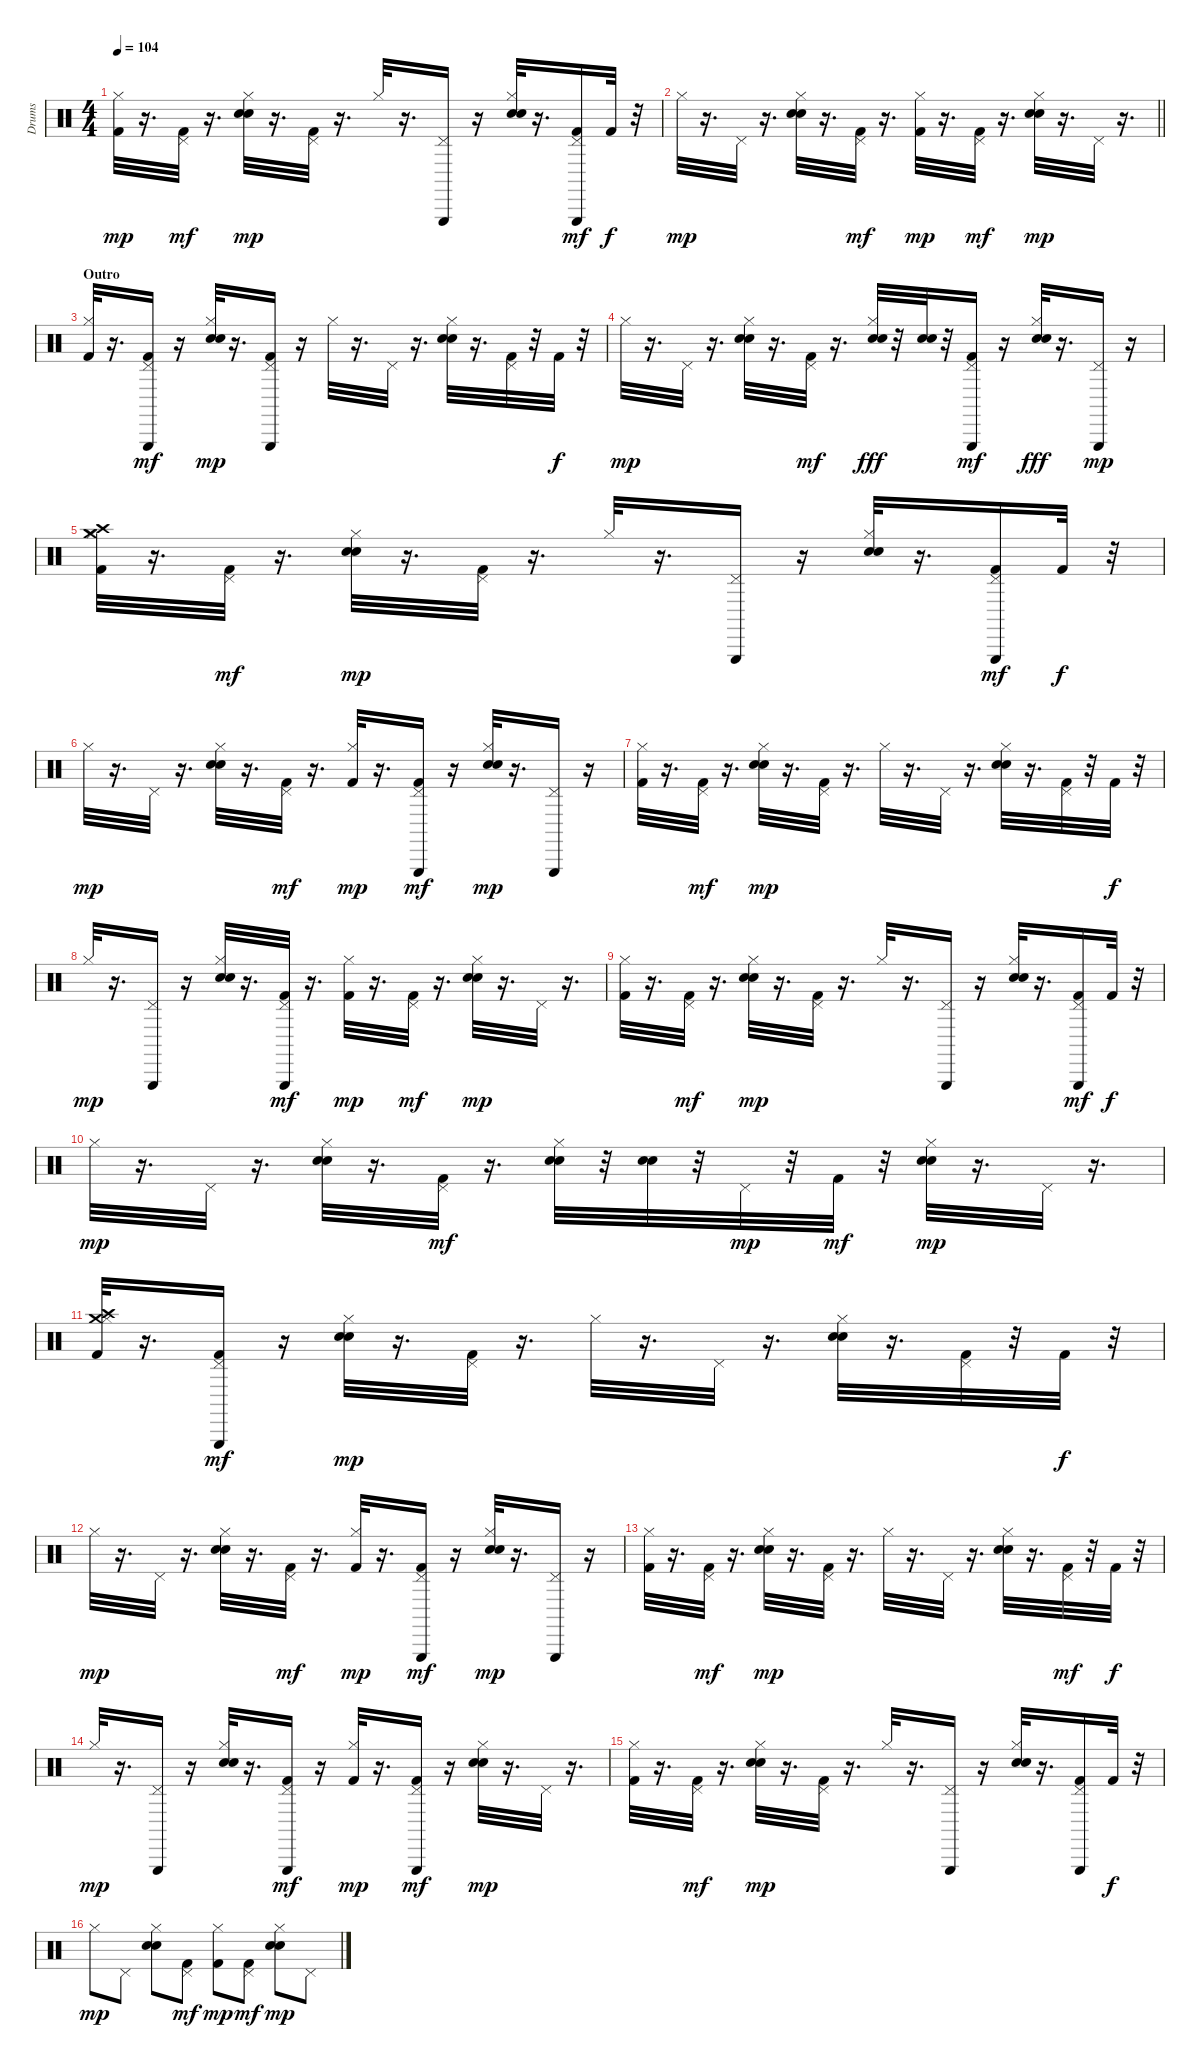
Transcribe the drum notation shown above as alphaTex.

\track ("Drums" "Drums") {instrument percussion}
\staff {score}
\articulation defaults
\ts (4 4)
\tempo 104
\clef neutral
\ks c
("Hi-Hat (closed)" "Kick (hit) 2").32{dy mp} r.16{d} ("Pedal Hi-Hat (hit)" "Kick (hit) 2").32{dy mf} r.16{d} ("Hi-Hat (closed)" "Electric Snare (hit)" "Hand Clap (hit)").32{dy mp} r.16{d} ("Pedal Hi-Hat (hit)" "Kick (hit) 2").32 r.16{d} "Hi-Hat (closed)".32 r.16{d} ("Triangle (hit)" "Pedal Hi-Hat (hit)").16 r.16 ("Hi-Hat (closed)" "Electric Snare (hit)" "Hand Clap (hit)").32 r.16{d} ("Triangle (hit)" "Pedal Hi-Hat (hit)" "Kick (hit) 2").16{dy mf} "Kick (hit) 2".32{dy f} r.32 |
\barLineRight lightlight "Hi-Hat (closed)".32{dy mp}
r.16{d} "Pedal Hi-Hat (hit)".32 r.16{d} ("Hi-Hat (closed)" "Electric Snare (hit)" "Hand Clap (hit)").32 r.16{d} ("Pedal Hi-Hat (hit)" "Kick (hit) 2").32{dy mf} r.16{d} ("Hi-Hat (closed)" "Kick (hit) 2").32{dy mp} r.16{d} ("Pedal Hi-Hat (hit)" "Kick (hit) 2").32{dy mf} r.16{d} ("Hi-Hat (closed)" "Electric Snare (hit)" "Hand Clap (hit)").32{dy mp} r.16{d} "Pedal Hi-Hat (hit)".32 r.16{d} |
\section ("" "Outro")
("Hi-Hat (closed)" "Kick (hit) 2").32 r.16{d} ("Triangle (hit)" "Pedal Hi-Hat (hit)" "Kick (hit) 2").16{dy mf} r.16 ("Hi-Hat (closed)" "Electric Snare (hit)" "Hand Clap (hit)").32{dy mp} r.16{d} ("Triangle (hit)" "Pedal Hi-Hat (hit)" "Kick (hit) 2").16 r.16 "Hi-Hat (closed)".32 r.16{d} "Pedal Hi-Hat (hit)".32 r.16{d} ("Hi-Hat (closed)" "Electric Snare (hit)" "Hand Clap (hit)").32 r.16{d} ("Pedal Hi-Hat (hit)" "Kick (hit) 2").32 r.32 "Kick (hit) 2".32{dy f} r.32 |
"Hi-Hat (closed)".32{dy mp} r.16{d} "Pedal Hi-Hat (hit)".32 r.16{d} ("Hi-Hat (closed)" "Electric Snare (hit)" "Hand Clap (hit)").32 r.16{d} ("Pedal Hi-Hat (hit)" "Kick (hit) 2").32{dy mf} r.16{d} ("Hi-Hat (closed)" "Electric Snare (hit)" "Hand Clap (hit)").32{dy fff} r.32 ("Electric Snare (hit)" "Hand Clap (hit)").32 r.32 ("Triangle (hit)" "Pedal Hi-Hat (hit)" "Kick (hit) 2").16{dy mf} r.16 ("Hi-Hat (closed)" "Hand Clap (hit)" "Electric Snare (hit)").32{dy fff} r.16{d} ("Triangle (hit)" "Pedal Hi-Hat (hit)").16{dy mp} r.16 |
("Crash high (hit)" "Crash medium (hit)" "Hi-Hat (closed)" "Kick (hit) 2").32 r.16{d} ("Pedal Hi-Hat (hit)" "Kick (hit) 2").32{dy mf} r.16{d} ("Hi-Hat (closed)" "Electric Snare (hit)" "Hand Clap (hit)").32{dy mp} r.16{d} ("Pedal Hi-Hat (hit)" "Kick (hit) 2").32 r.16{d} "Hi-Hat (closed)".32 r.16{d} ("Triangle (hit)" "Pedal Hi-Hat (hit)").16 r.16 ("Hi-Hat (closed)" "Electric Snare (hit)" "Hand Clap (hit)").32 r.16{d} ("Triangle (hit)" "Pedal Hi-Hat (hit)" "Kick (hit) 2").16{dy mf} "Kick (hit) 2".32{dy f} r.32 |
"Hi-Hat (closed)".32{dy mp} r.16{d} "Pedal Hi-Hat (hit)".32 r.16{d} ("Hi-Hat (closed)" "Electric Snare (hit)" "Hand Clap (hit)").32 r.16{d} ("Pedal Hi-Hat (hit)" "Kick (hit) 2").32{dy mf} r.16{d} ("Hi-Hat (closed)" "Kick (hit) 2").32{dy mp} r.16{d} ("Triangle (hit)" "Pedal Hi-Hat (hit)" "Kick (hit) 2").16{dy mf} r.16 ("Hi-Hat (closed)" "Electric Snare (hit)" "Hand Clap (hit)").32{dy mp} r.16{d} ("Triangle (hit)" "Pedal Hi-Hat (hit)").16 r.16 |
("Hi-Hat (closed)" "Kick (hit) 2").32 r.16{d} ("Pedal Hi-Hat (hit)" "Kick (hit) 2").32{dy mf} r.16{d} ("Hi-Hat (closed)" "Electric Snare (hit)" "Hand Clap (hit)").32{dy mp} r.16{d} ("Pedal Hi-Hat (hit)" "Kick (hit) 2").32 r.16{d} "Hi-Hat (closed)".32 r.16{d} "Pedal Hi-Hat (hit)".32 r.16{d} ("Hi-Hat (closed)" "Electric Snare (hit)" "Hand Clap (hit)").32 r.16{d} ("Pedal Hi-Hat (hit)" "Kick (hit) 2").32 r.32 "Kick (hit) 2".32{dy f} r.32 |
"Hi-Hat (closed)".32{dy mp} r.16{d} ("Triangle (hit)" "Pedal Hi-Hat (hit)").16 r.16 ("Hi-Hat (closed)" "Electric Snare (hit)" "Hand Clap (hit)").32 r.16{d} ("Triangle (hit)" "Pedal Hi-Hat (hit)" "Kick (hit) 2").32{dy mf} r.16{d} ("Hi-Hat (closed)" "Kick (hit) 2").32{dy mp} r.16{d} ("Pedal Hi-Hat (hit)" "Kick (hit) 2").32{dy mf} r.16{d} ("Hi-Hat (closed)" "Electric Snare (hit)" "Hand Clap (hit)").32{dy mp} r.16{d} "Pedal Hi-Hat (hit)".32 r.16{d} |
("Hi-Hat (closed)" "Kick (hit) 2").32 r.16{d} ("Pedal Hi-Hat (hit)" "Kick (hit) 2").32{dy mf} r.16{d} ("Hi-Hat (closed)" "Electric Snare (hit)" "Hand Clap (hit)").32{dy mp} r.16{d} ("Pedal Hi-Hat (hit)" "Kick (hit) 2").32 r.16{d} "Hi-Hat (closed)".32 r.16{d} ("Triangle (hit)" "Pedal Hi-Hat (hit)").16 r.16 ("Hi-Hat (closed)" "Electric Snare (hit)" "Hand Clap (hit)").32 r.16{d} ("Triangle (hit)" "Pedal Hi-Hat (hit)" "Kick (hit) 2").16{dy mf} "Kick (hit) 2".32{dy f} r.32 |
"Hi-Hat (closed)".32{dy mp} r.16{d} "Pedal Hi-Hat (hit)".32 r.16{d} ("Hi-Hat (closed)" "Electric Snare (hit)" "Hand Clap (hit)").32 r.16{d} ("Pedal Hi-Hat (hit)" "Kick (hit) 2").32{dy mf} r.16{d} ("Hi-Hat (closed)" "Hand Clap (hit)" "Electric Snare (hit)").32 r.32 ("Hand Clap (hit)" "Electric Snare (hit)").32 r.32 "Pedal Hi-Hat (hit)".32{dy mp} r.32 "Kick (hit) 2".32{dy mf} r.32 ("Hi-Hat (closed)" "Electric Snare (hit)" "Hand Clap (hit)").32{dy mp} r.16{d} "Pedal Hi-Hat (hit)".32 r.16{d} |
("Crash medium (hit)" "Crash high (hit)" "Hi-Hat (closed)" "Kick (hit) 2").32 r.16{d} ("Triangle (hit)" "Pedal Hi-Hat (hit)" "Kick (hit) 2").16{dy mf} r.16 ("Hi-Hat (closed)" "Electric Snare (hit)" "Hand Clap (hit)").32{dy mp} r.16{d} ("Pedal Hi-Hat (hit)" "Kick (hit) 2").32 r.16{d} "Hi-Hat (closed)".32 r.16{d} "Pedal Hi-Hat (hit)".32 r.16{d} ("Hi-Hat (closed)" "Electric Snare (hit)" "Hand Clap (hit)").32 r.16{d} ("Pedal Hi-Hat (hit)" "Kick (hit) 2").32 r.32 "Kick (hit) 2".32{dy f} r.32 |
"Hi-Hat (closed)".32{dy mp} r.16{d} "Pedal Hi-Hat (hit)".32 r.16{d} ("Hi-Hat (closed)" "Electric Snare (hit)" "Hand Clap (hit)").32 r.16{d} ("Pedal Hi-Hat (hit)" "Kick (hit) 2").32{dy mf} r.16{d} ("Hi-Hat (closed)" "Kick (hit) 2").32{dy mp} r.16{d} ("Triangle (hit)" "Pedal Hi-Hat (hit)" "Kick (hit) 2").16{dy mf} r.16 ("Hi-Hat (closed)" "Electric Snare (hit)" "Hand Clap (hit)").32{dy mp} r.16{d} ("Triangle (hit)" "Pedal Hi-Hat (hit)").16 r.16 |
("Hi-Hat (closed)" "Kick (hit) 2").32 r.16{d} ("Pedal Hi-Hat (hit)" "Kick (hit) 2").32{dy mf} r.16{d} ("Hi-Hat (closed)" "Electric Snare (hit)" "Hand Clap (hit)").32{dy mp} r.16{d} ("Pedal Hi-Hat (hit)" "Kick (hit) 2").32 r.16{d} "Hi-Hat (closed)".32 r.16{d} "Pedal Hi-Hat (hit)".32 r.16{d} ("Hi-Hat (closed)" "Electric Snare (hit)" "Hand Clap (hit)").32 r.16{d} ("Pedal Hi-Hat (hit)" "Kick (hit) 2").32{dy mf} r.32 "Kick (hit) 2".32{dy f} r.32 |
"Hi-Hat (closed)".32{dy mp} r.16{d} ("Triangle (hit)" "Pedal Hi-Hat (hit)").16 r.16 ("Hi-Hat (closed)" "Electric Snare (hit)" "Hand Clap (hit)").32 r.16{d} ("Triangle (hit)" "Pedal Hi-Hat (hit)" "Kick (hit) 2").16{dy mf} r.16 ("Hi-Hat (closed)" "Kick (hit) 2").32{dy mp} r.16{d} ("Triangle (hit)" "Pedal Hi-Hat (hit)" "Kick (hit) 2").16{dy mf} r.16 ("Hi-Hat (closed)" "Electric Snare (hit)" "Hand Clap (hit)").32{dy mp} r.16{d} "Pedal Hi-Hat (hit)".32 r.16{d} |
("Hi-Hat (closed)" "Kick (hit) 2").32 r.16{d} ("Pedal Hi-Hat (hit)" "Kick (hit) 2").32{dy mf} r.16{d} ("Hi-Hat (closed)" "Electric Snare (hit)" "Hand Clap (hit)").32{dy mp} r.16{d} ("Pedal Hi-Hat (hit)" "Kick (hit) 2").32 r.16{d} "Hi-Hat (closed)".32 r.16{d} ("Triangle (hit)" "Pedal Hi-Hat (hit)").16 r.16 ("Hi-Hat (closed)" "Electric Snare (hit)" "Hand Clap (hit)").32 r.16{d} ("Triangle (hit)" "Pedal Hi-Hat (hit)" "Kick (hit) 2").16 "Kick (hit) 2".32{dy f} r.32 |
"Hi-Hat (closed)".8{dy mp} "Pedal Hi-Hat (hit)".8 ("Hi-Hat (closed)" "Electric Snare (hit)" "Hand Clap (hit)").8 ("Pedal Hi-Hat (hit)" "Kick (hit) 2").8{dy mf} ("Hi-Hat (closed)" "Kick (hit) 2").8{dy mp} ("Pedal Hi-Hat (hit)" "Kick (hit) 2").8{dy mf} ("Hi-Hat (closed)" "Electric Snare (hit)" "Hand Clap (hit)").8{dy mp} "Pedal Hi-Hat (hit)".8
